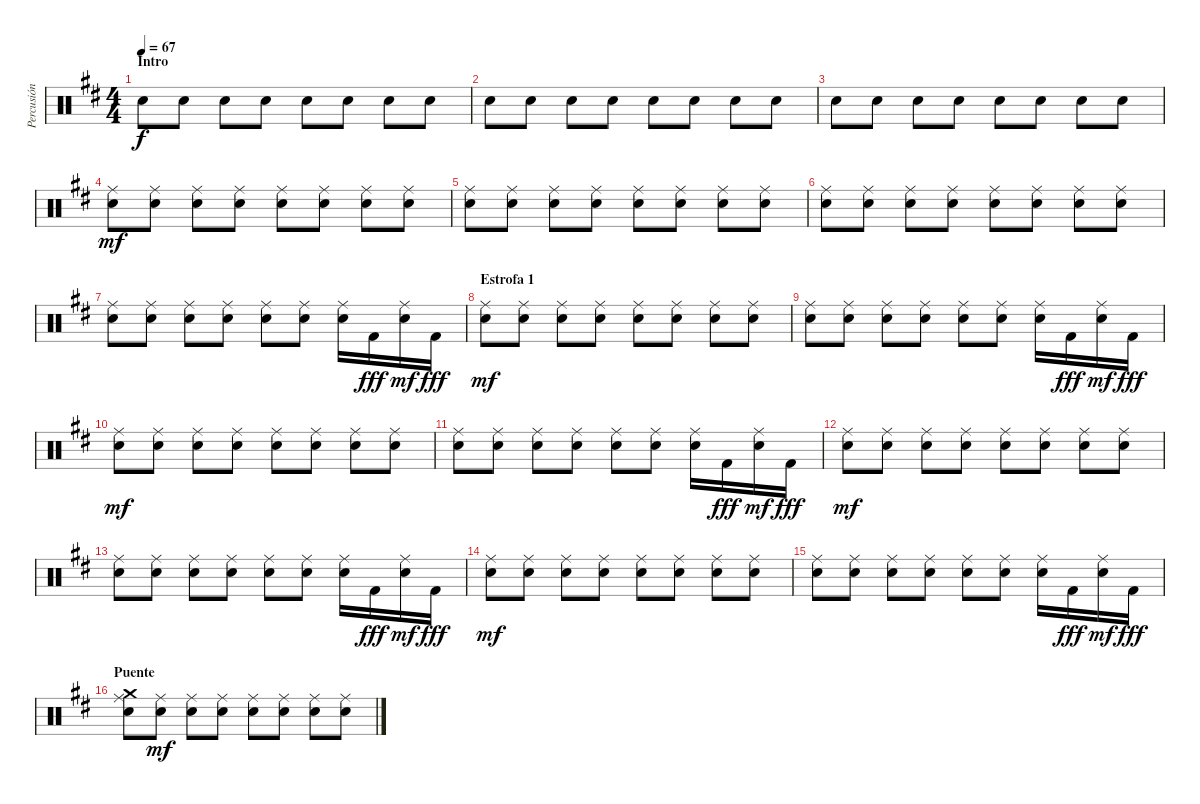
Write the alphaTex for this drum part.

\track ("Percusión" "Percusión") {instrument percussion}
\staff {score}
\articulation defaults
\ts (4 4)
\section ("" "Intro")
\tempo 67
\clef neutral
\ks bminor "Snare (hit) 2".8{dy f} "Snare (hit) 2".8 "Snare (hit) 2".8 "Snare (hit) 2".8 "Snare (hit) 2".8 "Snare (hit) 2".8 "Snare (hit) 2".8 "Snare (hit) 2".8
|
"Snare (hit) 2".8 "Snare (hit) 2".8 "Snare (hit) 2".8 "Snare (hit) 2".8 "Snare (hit) 2".8 "Snare (hit) 2".8 "Snare (hit) 2".8 "Snare (hit) 2".8 |
"Snare (hit) 2".8 "Snare (hit) 2".8 "Snare (hit) 2".8 "Snare (hit) 2".8 "Snare (hit) 2".8 "Snare (hit) 2".8 "Snare (hit) 2".8 "Snare (hit) 2".8 |
("Snare (hit) 2" "Ride (middle)").8{dy mf} ("Snare (hit) 2" "Ride (middle)").8 ("Snare (hit) 2" "Ride (middle)").8 ("Snare (hit) 2" "Ride (middle)").8 ("Snare (hit) 2" "Ride (middle)").8 ("Snare (hit) 2" "Ride (middle)").8 ("Snare (hit) 2" "Ride (middle)").8 ("Snare (hit) 2" "Ride (middle)").8 |
("Snare (hit) 2" "Ride (middle)").8 ("Snare (hit) 2" "Ride (middle)").8 ("Snare (hit) 2" "Ride (middle)").8 ("Snare (hit) 2" "Ride (middle)").8 ("Snare (hit) 2" "Ride (middle)").8 ("Snare (hit) 2" "Ride (middle)").8 ("Snare (hit) 2" "Ride (middle)").8 ("Snare (hit) 2" "Ride (middle)").8 |
("Snare (hit) 2" "Ride (middle)").8 ("Snare (hit) 2" "Ride (middle)").8 ("Snare (hit) 2" "Ride (middle)").8 ("Snare (hit) 2" "Ride (middle)").8 ("Snare (hit) 2" "Ride (middle)").8 ("Snare (hit) 2" "Ride (middle)").8 ("Snare (hit) 2" "Ride (middle)").8 ("Snare (hit) 2" "Ride (middle)").8 |
("Snare (hit) 2" "Ride (middle)").8 ("Snare (hit) 2" "Ride (middle)").8 ("Snare (hit) 2" "Ride (middle)").8 ("Snare (hit) 2" "Ride (middle)").8 ("Snare (hit) 2" "Ride (middle)").8 ("Snare (hit) 2" "Ride (middle)").8 ("Snare (hit) 2" "Ride (middle)").16 "Kick (hit) 2".16{dy fff} ("Snare (hit) 2" "Ride (middle)").16{dy mf} "Kick (hit) 2".16{dy fff} |
\section ("" "Estrofa 1")
("Snare (hit) 2" "Ride (middle)").8{dy mf} ("Snare (hit) 2" "Ride (middle)").8 ("Snare (hit) 2" "Ride (middle)").8 ("Snare (hit) 2" "Ride (middle)").8 ("Snare (hit) 2" "Ride (middle)").8 ("Snare (hit) 2" "Ride (middle)").8 ("Snare (hit) 2" "Ride (middle)").8 ("Snare (hit) 2" "Ride (middle)").8 |
("Snare (hit) 2" "Ride (middle)").8 ("Snare (hit) 2" "Ride (middle)").8 ("Snare (hit) 2" "Ride (middle)").8 ("Snare (hit) 2" "Ride (middle)").8 ("Snare (hit) 2" "Ride (middle)").8 ("Snare (hit) 2" "Ride (middle)").8 ("Snare (hit) 2" "Ride (middle)").16 "Kick (hit) 2".16{dy fff} ("Snare (hit) 2" "Ride (middle)").16{dy mf} "Kick (hit) 2".16{dy fff} |
("Snare (hit) 2" "Ride (middle)").8{dy mf} ("Snare (hit) 2" "Ride (middle)").8 ("Snare (hit) 2" "Ride (middle)").8 ("Snare (hit) 2" "Ride (middle)").8 ("Snare (hit) 2" "Ride (middle)").8 ("Snare (hit) 2" "Ride (middle)").8 ("Snare (hit) 2" "Ride (middle)").8 ("Snare (hit) 2" "Ride (middle)").8 |
("Snare (hit) 2" "Ride (middle)").8 ("Snare (hit) 2" "Ride (middle)").8 ("Snare (hit) 2" "Ride (middle)").8 ("Snare (hit) 2" "Ride (middle)").8 ("Snare (hit) 2" "Ride (middle)").8 ("Snare (hit) 2" "Ride (middle)").8 ("Snare (hit) 2" "Ride (middle)").16 "Kick (hit) 2".16{dy fff} ("Snare (hit) 2" "Ride (middle)").16{dy mf} "Kick (hit) 2".16{dy fff} |
("Snare (hit) 2" "Ride (middle)").8{dy mf} ("Snare (hit) 2" "Ride (middle)").8 ("Snare (hit) 2" "Ride (middle)").8 ("Snare (hit) 2" "Ride (middle)").8 ("Snare (hit) 2" "Ride (middle)").8 ("Snare (hit) 2" "Ride (middle)").8 ("Snare (hit) 2" "Ride (middle)").8 ("Snare (hit) 2" "Ride (middle)").8 |
("Snare (hit) 2" "Ride (middle)").8 ("Snare (hit) 2" "Ride (middle)").8 ("Snare (hit) 2" "Ride (middle)").8 ("Snare (hit) 2" "Ride (middle)").8 ("Snare (hit) 2" "Ride (middle)").8 ("Snare (hit) 2" "Ride (middle)").8 ("Snare (hit) 2" "Ride (middle)").16 "Kick (hit) 2".16{dy fff} ("Snare (hit) 2" "Ride (middle)").16{dy mf} "Kick (hit) 2".16{dy fff} |
("Snare (hit) 2" "Ride (middle)").8{dy mf} ("Snare (hit) 2" "Ride (middle)").8 ("Snare (hit) 2" "Ride (middle)").8 ("Snare (hit) 2" "Ride (middle)").8 ("Snare (hit) 2" "Ride (middle)").8 ("Snare (hit) 2" "Ride (middle)").8 ("Snare (hit) 2" "Ride (middle)").8 ("Snare (hit) 2" "Ride (middle)").8 |
("Snare (hit) 2" "Ride (middle)").8 ("Snare (hit) 2" "Ride (middle)").8 ("Snare (hit) 2" "Ride (middle)").8 ("Snare (hit) 2" "Ride (middle)").8 ("Snare (hit) 2" "Ride (middle)").8 ("Snare (hit) 2" "Ride (middle)").8 ("Snare (hit) 2" "Ride (middle)").16 "Kick (hit) 2".16{dy fff} ("Snare (hit) 2" "Ride (middle)").16{dy mf} "Kick (hit) 2".16{dy fff} |
\section ("" "Puente")
("Snare (hit) 2" "Ride (middle)" "Crash medium (hit)").8 ("Snare (hit) 2" "Ride (middle)").8{dy mf} ("Snare (hit) 2" "Ride (middle)").8 ("Snare (hit) 2" "Ride (middle)").8 ("Snare (hit) 2" "Ride (middle)").8 ("Snare (hit) 2" "Ride (middle)").8 ("Snare (hit) 2" "Ride (middle)").8 ("Snare (hit) 2" "Ride (middle)").8
